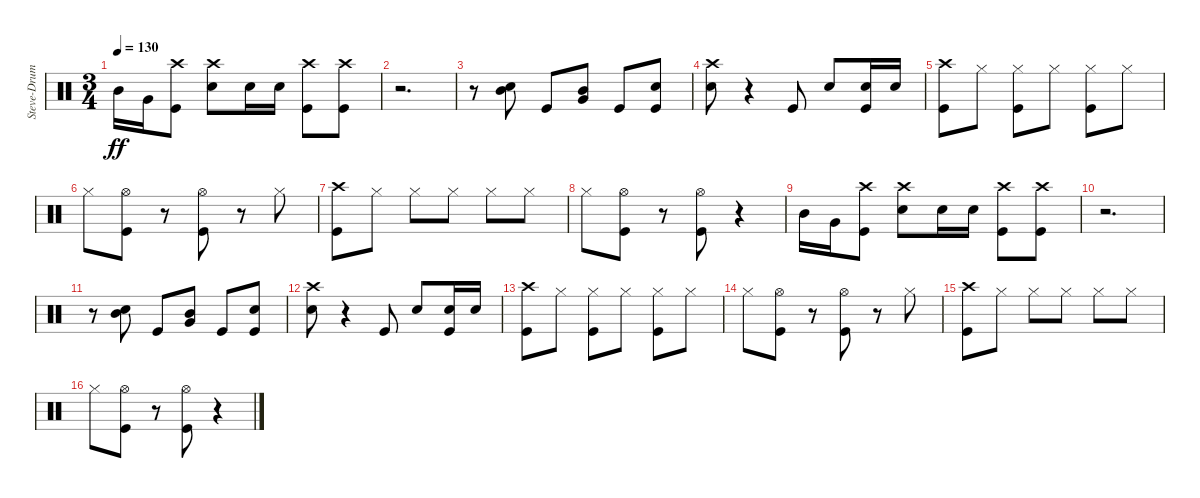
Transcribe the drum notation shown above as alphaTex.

\track ("Steve-Drums" "Steve-Drum") {instrument percussion}
\staff {score}
\articulation defaults
\ts (3 4)
\tempo 130
\clef neutral
\ks c "Mid Tom (hit)".16{dy ff} "Very Low Tom (hit)".16
("Crash high (hit)" "Kick (hit)").8 ("Crash high (hit)" "Snare (hit) 2").8 "Snare (hit) 2".16 "Snare (hit) 2".16 ("Crash high (hit)" "Kick (hit)").8 ("Crash high (hit)" "Kick (hit)").8 |
r.2{d} |
r.8 ("Mid Tom (hit)" "Snare (hit) 2").8 "Kick (hit)".8 ("Mid Tom (hit)" "Very Low Tom (hit)").8 "Kick (hit)".8 ("Snare (hit) 2" "Kick (hit)").8 |
("Crash high (hit)" "Snare (hit) 2").8 r.4 "Kick (hit)".8 "Snare (hit) 2".8 ("Snare (hit) 2" "Kick (hit)").16 "Snare (hit) 2".16 |
("Crash high (hit)" "Kick (hit)").8 "Hi-Hat (closed)".8 ("Hi-Hat (closed)" "Kick (hit)").8 "Hi-Hat (closed)".8 ("Hi-Hat (closed)" "Kick (hit)").8 "Hi-Hat (closed)".8 |
"Hi-Hat (closed)".8 ("Hi-Hat (open)" "Kick (hit)").8 r.8 ("Hi-Hat (open)" "Kick (hit)").8 r.8 "Hi-Hat (closed)".8 |
("Crash high (hit)" "Kick (hit)").8 "Hi-Hat (closed)".8 "Hi-Hat (closed)".8 "Hi-Hat (closed)".8 "Hi-Hat (closed)".8 "Hi-Hat (closed)".8 |
"Hi-Hat (closed)".8 ("Hi-Hat (open)" "Kick (hit)").8 r.8 ("Hi-Hat (open)" "Kick (hit)").8 r.4 |
"Mid Tom (hit)".16 "Very Low Tom (hit)".16 ("Crash high (hit)" "Kick (hit)").8 ("Crash high (hit)" "Snare (hit) 2").8 "Snare (hit) 2".16 "Snare (hit) 2".16 ("Crash high (hit)" "Kick (hit)").8 ("Crash high (hit)" "Kick (hit)").8 |
r.2{d} |
r.8 ("Mid Tom (hit)" "Snare (hit) 2").8 "Kick (hit)".8 ("Mid Tom (hit)" "Very Low Tom (hit)").8 "Kick (hit)".8 ("Snare (hit) 2" "Kick (hit)").8 |
("Crash high (hit)" "Snare (hit) 2").8 r.4 "Kick (hit)".8 "Snare (hit) 2".8 ("Snare (hit) 2" "Kick (hit)").16 "Snare (hit) 2".16 |
("Crash high (hit)" "Kick (hit)").8 "Hi-Hat (closed)".8 ("Hi-Hat (closed)" "Kick (hit)").8 "Hi-Hat (closed)".8 ("Hi-Hat (closed)" "Kick (hit)").8 "Hi-Hat (closed)".8 |
"Hi-Hat (closed)".8 ("Hi-Hat (open)" "Kick (hit)").8 r.8 ("Hi-Hat (open)" "Kick (hit)").8 r.8 "Hi-Hat (closed)".8 |
("Crash high (hit)" "Kick (hit)").8 "Hi-Hat (closed)".8 "Hi-Hat (closed)".8 "Hi-Hat (closed)".8 "Hi-Hat (closed)".8 "Hi-Hat (closed)".8 |
"Hi-Hat (closed)".8 ("Hi-Hat (open)" "Kick (hit)").8 r.8 ("Hi-Hat (open)" "Kick (hit)").8 r.4
